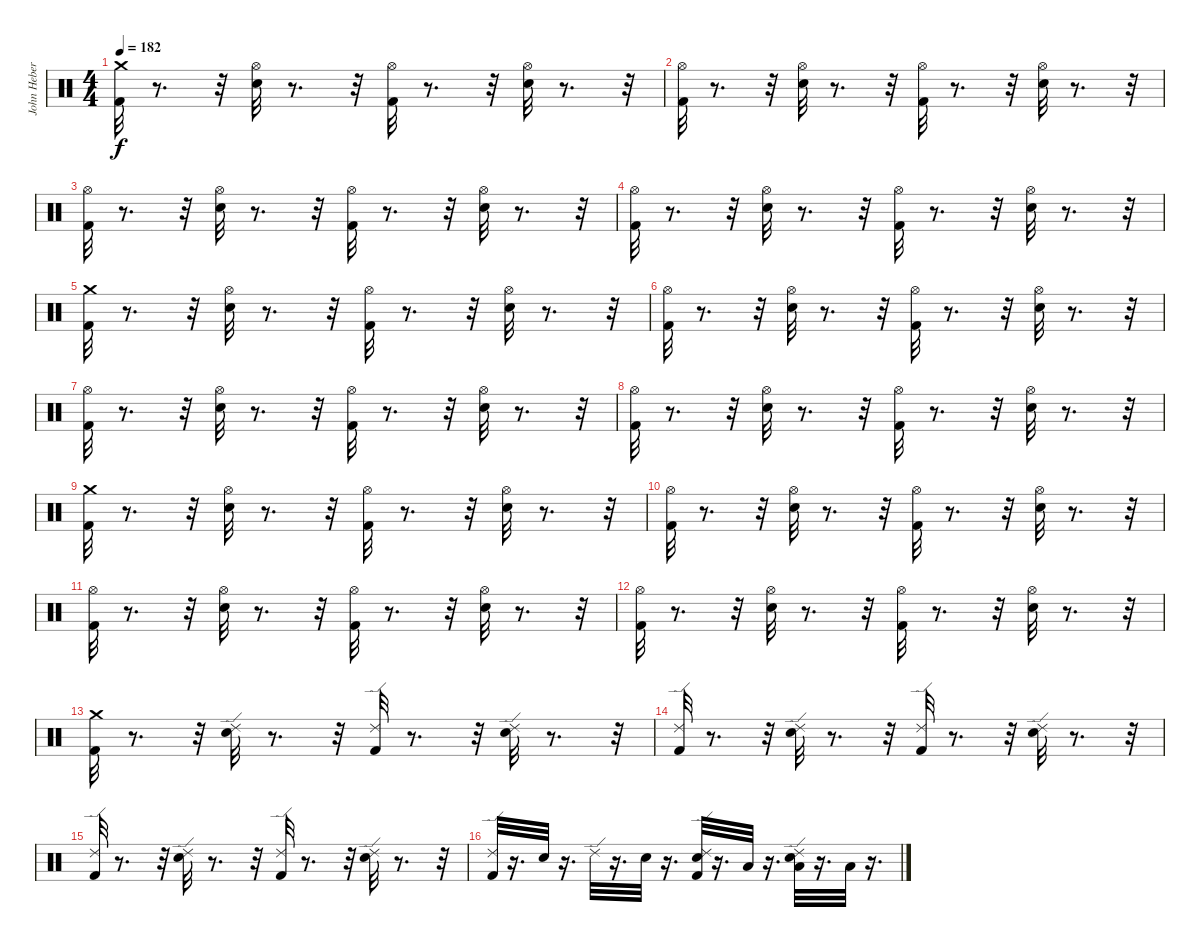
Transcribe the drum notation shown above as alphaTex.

\track ("John Hebert" "John Heber") {instrument percussion}
\staff {score}
\articulation defaults
\ts (4 4)
\tempo 182
\clef neutral
\ks c
("Kick (hit) 2" "Crash medium (hit)").32{dy f} r.8{d} r.32 ("Hi-Hat (open)" "Snare (hit) 2").32 r.8{d} r.32 ("Hi-Hat (open)" "Kick (hit) 2").32 r.8{d} r.32 ("Hi-Hat (open)" "Snare (hit) 2").32 r.8{d} r.32 |
("Hi-Hat (open)" "Kick (hit) 2").32 r.8{d} r.32 ("Snare (hit) 2" "Hi-Hat (open)").32 r.8{d} r.32 ("Kick (hit) 2" "Hi-Hat (open)").32 r.8{d} r.32 ("Snare (hit) 2" "Hi-Hat (open)").32 r.8{d} r.32 |
("Hi-Hat (open)" "Kick (hit) 2").32 r.8{d} r.32 ("Snare (hit) 2" "Hi-Hat (open)").32 r.8{d} r.32 ("Kick (hit) 2" "Hi-Hat (open)").32 r.8{d} r.32 ("Snare (hit) 2" "Hi-Hat (open)").32 r.8{d} r.32 |
("Hi-Hat (open)" "Kick (hit) 2").32 r.8{d} r.32 ("Snare (hit) 2" "Hi-Hat (open)").32 r.8{d} r.32 ("Kick (hit) 2" "Hi-Hat (open)").32 r.8{d} r.32 ("Snare (hit) 2" "Hi-Hat (open)").32 r.8{d} r.32 |
("Kick (hit) 2" "Crash medium (hit)").32 r.8{d} r.32 ("Hi-Hat (open)" "Snare (hit) 2").32 r.8{d} r.32 ("Hi-Hat (open)" "Kick (hit) 2").32 r.8{d} r.32 ("Hi-Hat (open)" "Snare (hit) 2").32 r.8{d} r.32 |
("Hi-Hat (open)" "Kick (hit) 2").32 r.8{d} r.32 ("Snare (hit) 2" "Hi-Hat (open)").32 r.8{d} r.32 ("Kick (hit) 2" "Hi-Hat (open)").32 r.8{d} r.32 ("Snare (hit) 2" "Hi-Hat (open)").32 r.8{d} r.32 |
("Hi-Hat (open)" "Kick (hit) 2").32 r.8{d} r.32 ("Snare (hit) 2" "Hi-Hat (open)").32 r.8{d} r.32 ("Kick (hit) 2" "Hi-Hat (open)").32 r.8{d} r.32 ("Snare (hit) 2" "Hi-Hat (open)").32 r.8{d} r.32 |
("Hi-Hat (open)" "Kick (hit) 2").32 r.8{d} r.32 ("Snare (hit) 2" "Hi-Hat (open)").32 r.8{d} r.32 ("Kick (hit) 2" "Hi-Hat (open)").32 r.8{d} r.32 ("Snare (hit) 2" "Hi-Hat (open)").32 r.8{d} r.32 |
("Kick (hit) 2" "Crash medium (hit)").32 r.8{d} r.32 ("Hi-Hat (open)" "Snare (hit) 2").32 r.8{d} r.32 ("Hi-Hat (open)" "Kick (hit) 2").32 r.8{d} r.32 ("Hi-Hat (open)" "Snare (hit) 2").32 r.8{d} r.32 |
("Hi-Hat (open)" "Kick (hit) 2").32 r.8{d} r.32 ("Snare (hit) 2" "Hi-Hat (open)").32 r.8{d} r.32 ("Kick (hit) 2" "Hi-Hat (open)").32 r.8{d} r.32 ("Snare (hit) 2" "Hi-Hat (open)").32 r.8{d} r.32 |
("Hi-Hat (open)" "Kick (hit) 2").32 r.8{d} r.32 ("Snare (hit) 2" "Hi-Hat (open)").32 r.8{d} r.32 ("Kick (hit) 2" "Hi-Hat (open)").32 r.8{d} r.32 ("Snare (hit) 2" "Hi-Hat (open)").32 r.8{d} r.32 |
("Hi-Hat (open)" "Kick (hit) 2").32 r.8{d} r.32 ("Snare (hit) 2" "Hi-Hat (open)").32 r.8{d} r.32 ("Kick (hit) 2" "Hi-Hat (open)").32 r.8{d} r.32 ("Snare (hit) 2" "Hi-Hat (open)").32 r.8{d} r.32 |
("Kick (hit) 2" "Crash medium (hit)").32 r.8{d} r.32 ("Ride (edge) 2" "Snare (hit) 2").32 r.8{d} r.32 ("Ride (edge) 2" "Kick (hit) 2").32 r.8{d} r.32 ("Ride (edge) 2" "Snare (hit) 2").32 r.8{d} r.32 |
("Ride (edge) 2" "Kick (hit) 2").32 r.8{d} r.32 ("Snare (hit) 2" "Ride (edge) 2").32 r.8{d} r.32 ("Kick (hit) 2" "Ride (edge) 2").32 r.8{d} r.32 ("Snare (hit) 2" "Ride (edge) 2").32 r.8{d} r.32 |
("Ride (edge) 2" "Kick (hit) 2").32 r.8{d} r.32 ("Snare (hit) 2" "Ride (edge) 2").32 r.8{d} r.32 ("Kick (hit) 2" "Ride (edge) 2").32 r.8{d} r.32 ("Snare (hit) 2" "Ride (edge) 2").32 r.8{d} r.32 |
("Ride (edge) 2" "Kick (hit) 2").32 r.16{d} "Snare (hit) 2".32 r.16{d} "Ride (edge) 2".32 r.16{d} "Snare (hit) 2".32 r.16{d} ("Snare (hit) 2" "Kick (hit) 2" "Ride (edge) 2").32 r.16{d} "Low Tom (hit)".32 r.16{d} ("Low Tom (hit)" "Snare (hit) 2" "Ride (edge) 2").32 r.16{d} "Low Tom (hit)".32 r.16{d}
